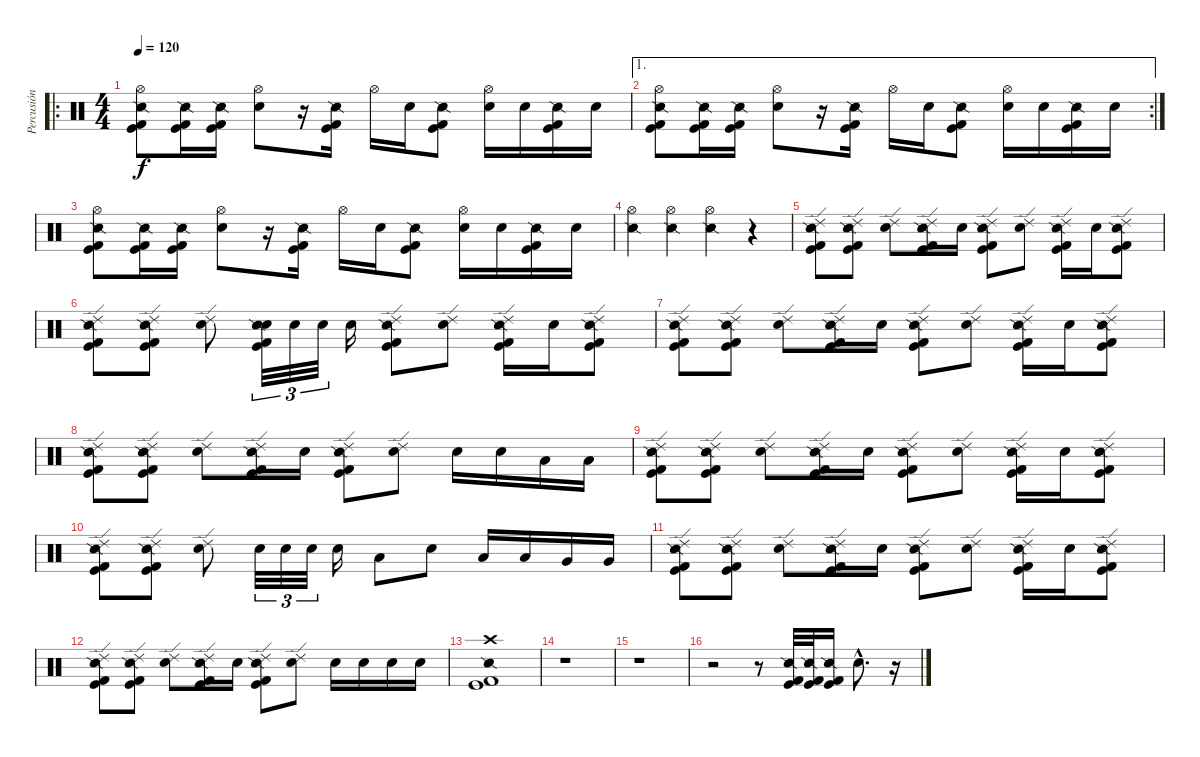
\track ("Percusión" "Percusión") {instrument percussion}
\staff {score}
\articulation defaults
\ro
\ts (4 4)
\tempo 120
\clef neutral
\ks c
("Hi-Hat (open)" "Snare (side stick) 2" "Kick (hit)" "Kick (hit) 2").8{dy f} ("Snare (side stick) 2" "Kick (hit)" "Kick (hit) 2").16 ("Snare (side stick) 2" "Kick (hit)" "Kick (hit) 2").16 ("Hi-Hat (open)" "Snare (hit) 2").8 r.16 ("Snare (side stick) 2" "Kick (hit)" "Kick (hit) 2").16 "Hi-Hat (open)".16 "Snare (hit) 2".16 ("Snare (side stick) 2" "Kick (hit)" "Kick (hit) 2").8 ("Hi-Hat (open)" "Snare (hit) 2").16 "Snare (hit) 2".16 ("Snare (side stick) 2" "Kick (hit)" "Kick (hit) 2").16 "Snare (hit) 2".16 |
\ae 1
\rc 2
("Hi-Hat (open)" "Snare (side stick) 2" "Kick (hit)" "Kick (hit) 2").8 ("Snare (side stick) 2" "Kick (hit)" "Kick (hit) 2").16 ("Snare (side stick) 2" "Kick (hit)" "Kick (hit) 2").16 ("Hi-Hat (open)" "Snare (hit) 2").8 r.16 ("Snare (side stick) 2" "Kick (hit)" "Kick (hit) 2").16 "Hi-Hat (open)".16 "Snare (hit) 2".16 ("Snare (side stick) 2" "Kick (hit)" "Kick (hit) 2").8 ("Hi-Hat (open)" "Snare (hit) 2").16 "Snare (hit) 2".16 ("Snare (side stick) 2" "Kick (hit)" "Kick (hit) 2").16 "Snare (hit) 2".16 |
("Hi-Hat (open)" "Snare (side stick) 2" "Kick (hit)" "Kick (hit) 2").8 ("Snare (side stick) 2" "Kick (hit)" "Kick (hit) 2").16 ("Snare (side stick) 2" "Kick (hit)" "Kick (hit) 2").16 ("Hi-Hat (open)" "Snare (hit) 2").8 r.16 ("Snare (side stick) 2" "Kick (hit)" "Kick (hit) 2").16 "Hi-Hat (open)".16 "Snare (hit) 2".16 ("Snare (side stick) 2" "Kick (hit)" "Kick (hit) 2").8 ("Hi-Hat (open)" "Snare (hit) 2").16 "Snare (hit) 2".16 ("Snare (side stick) 2" "Kick (hit)" "Kick (hit) 2").16 "Snare (hit) 2".16 |
("Hi-Hat (open)" "Snare (side stick) 2").4 ("Hi-Hat (open)" "Snare (side stick) 2").4 ("Hi-Hat (open)" "Snare (side stick) 2").4 r.4 |
("Ride (edge) 2" "Snare (side stick) 2" "Kick (hit)" "Kick (hit) 2").8 ("Ride (edge) 2" "Snare (side stick) 2" "Kick (hit)" "Kick (hit) 2").8 ("Ride (edge) 2" "Snare (hit) 2").8 ("Ride (edge) 2" "Snare (side stick) 2" "Kick (hit)" "Kick (hit) 2").16 "Snare (hit) 2".16 ("Ride (edge) 2" "Snare (side stick) 2" "Kick (hit)" "Kick (hit) 2").8 ("Ride (edge) 2" "Snare (hit) 2").8 ("Ride (edge) 2" "Snare (side stick) 2" "Kick (hit)" "Kick (hit) 2").16 "Snare (hit) 2".16 ("Ride (edge) 2" "Snare (side stick) 2" "Kick (hit)" "Kick (hit) 2").8 |
("Ride (edge) 2" "Snare (side stick) 2" "Kick (hit)" "Kick (hit) 2").8 ("Ride (edge) 2" "Snare (side stick) 2" "Kick (hit)" "Kick (hit) 2").8 ("Ride (edge) 2" "Snare (hit) 2").8 ("Snare (hit) 2" "Snare (side stick) 2" "Kick (hit)" "Kick (hit) 2").32{tu (3 2)} "Snare (hit) 2".32{tu (3 2)} "Snare (hit) 2".32{tu (3 2)} "Snare (hit) 2".16 ("Ride (edge) 2" "Snare (side stick) 2" "Kick (hit)" "Kick (hit) 2").8 ("Ride (edge) 2" "Snare (hit) 2").8 ("Ride (edge) 2" "Snare (side stick) 2" "Kick (hit)" "Kick (hit) 2").16 "Snare (hit) 2".16 ("Ride (edge) 2" "Snare (side stick) 2" "Kick (hit)" "Kick (hit) 2").8 |
("Ride (edge) 2" "Snare (side stick) 2" "Kick (hit)" "Kick (hit) 2").8 ("Ride (edge) 2" "Snare (side stick) 2" "Kick (hit)" "Kick (hit) 2").8 ("Ride (edge) 2" "Snare (hit) 2").8 ("Ride (edge) 2" "Snare (side stick) 2" "Kick (hit)" "Kick (hit) 2").16 "Snare (hit) 2".16 ("Ride (edge) 2" "Snare (side stick) 2" "Kick (hit)" "Kick (hit) 2").8 ("Ride (edge) 2" "Snare (hit) 2").8 ("Ride (edge) 2" "Snare (side stick) 2" "Kick (hit)" "Kick (hit) 2").16 "Snare (hit) 2".16 ("Ride (edge) 2" "Snare (side stick) 2" "Kick (hit)" "Kick (hit) 2").8 |
("Ride (edge) 2" "Snare (side stick) 2" "Kick (hit)" "Kick (hit) 2").8 ("Ride (edge) 2" "Snare (side stick) 2" "Kick (hit)" "Kick (hit) 2").8 ("Ride (edge) 2" "Snare (hit) 2").8 ("Ride (edge) 2" "Snare (side stick) 2" "Kick (hit)" "Kick (hit) 2").16 "Snare (hit) 2".16 ("Ride (edge) 2" "Snare (side stick) 2" "Kick (hit)" "Kick (hit) 2").8 ("Ride (edge) 2" "Snare (hit) 2").8 "Snare (hit) 2".16 "Snare (hit) 2".16 "Low Tom (hit)".16 "Low Tom (hit)".16 |
("Ride (edge) 2" "Snare (side stick) 2" "Kick (hit)" "Kick (hit) 2").8 ("Ride (edge) 2" "Snare (side stick) 2" "Kick (hit)" "Kick (hit) 2").8 ("Ride (edge) 2" "Snare (hit) 2").8 ("Ride (edge) 2" "Snare (side stick) 2" "Kick (hit)" "Kick (hit) 2").16 "Snare (hit) 2".16 ("Ride (edge) 2" "Snare (side stick) 2" "Kick (hit)" "Kick (hit) 2").8 ("Ride (edge) 2" "Snare (hit) 2").8 ("Ride (edge) 2" "Snare (side stick) 2" "Kick (hit)" "Kick (hit) 2").16 "Snare (hit) 2".16 ("Ride (edge) 2" "Snare (side stick) 2" "Kick (hit)" "Kick (hit) 2").8 |
("Ride (edge) 2" "Snare (side stick) 2" "Kick (hit)" "Kick (hit) 2").8 ("Ride (edge) 2" "Snare (side stick) 2" "Kick (hit)" "Kick (hit) 2").8 ("Ride (edge) 2" "Snare (hit) 2").8 "Snare (hit) 2".32{tu (3 2)} "Snare (hit) 2".32{tu (3 2)} "Snare (hit) 2".32{tu (3 2)} "Snare (hit) 2".16 "Low Tom (hit)".8 "Snare (hit) 2".8 "Low Tom (hit)".16 "Low Tom (hit)".16 "Very Low Tom (hit)".16 "Very Low Tom (hit)".16 |
("Ride (edge) 2" "Snare (side stick) 2" "Kick (hit)" "Kick (hit) 2").8 ("Ride (edge) 2" "Snare (side stick) 2" "Kick (hit)" "Kick (hit) 2").8 ("Ride (edge) 2" "Snare (hit) 2").8 ("Ride (edge) 2" "Snare (side stick) 2" "Kick (hit)" "Kick (hit) 2").16 "Snare (hit) 2".16 ("Ride (edge) 2" "Snare (side stick) 2" "Kick (hit)" "Kick (hit) 2").8 ("Ride (edge) 2" "Snare (hit) 2").8 ("Ride (edge) 2" "Snare (side stick) 2" "Kick (hit)" "Kick (hit) 2").16 "Snare (hit) 2".16 ("Ride (edge) 2" "Snare (side stick) 2" "Kick (hit)" "Kick (hit) 2").8 |
("Ride (edge) 2" "Snare (side stick) 2" "Kick (hit)" "Kick (hit) 2").8 ("Ride (edge) 2" "Snare (side stick) 2" "Kick (hit)" "Kick (hit) 2").8 ("Ride (edge) 2" "Snare (hit) 2").8 ("Ride (edge) 2" "Snare (side stick) 2" "Kick (hit)" "Kick (hit) 2").16 "Snare (hit) 2".16 ("Ride (edge) 2" "Snare (side stick) 2" "Kick (hit)" "Kick (hit) 2").8 ("Ride (edge) 2" "Snare (hit) 2").8 "Snare (hit) 2".16 "Snare (hit) 2".16 "Snare (hit) 2".16 "Snare (hit) 2".16 |
("Crash high (hit)" "Snare (side stick) 2" "Kick (hit)" "Kick (hit) 2").1 |
r.1 |
r.1 |
r.2 r.8 ("Snare (side stick) 2" "Kick (hit)" "Kick (hit) 2").32 ("Snare (side stick) 2" "Kick (hit)" "Kick (hit) 2").32 ("Snare (side stick) 2" "Kick (hit)" "Kick (hit) 2").16 "Snare (hit) 2"{hac}.8{d} r.16
